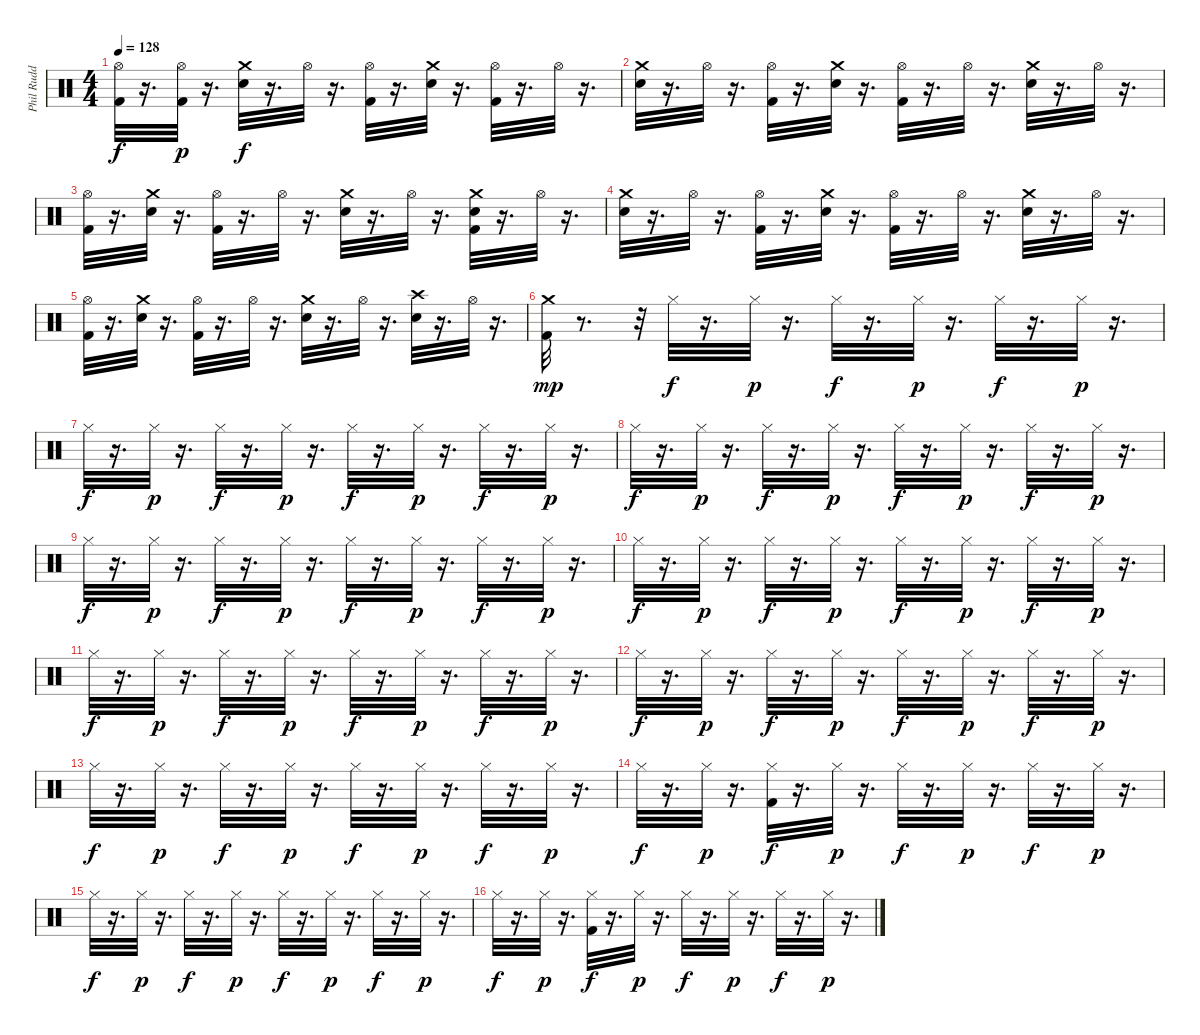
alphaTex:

\track ("Phil Rudd" "Phil Rudd") {instrument percussion}
\staff {score}
\articulation defaults
\ts (4 4)
\tempo 128
\clef neutral
\ks c
("Hi-Hat (open)" "Kick (hit) 2").32{dy f} r.16{d} ("Kick (hit) 2" "Hi-Hat (open)").32{dy p} r.16{d} ("Crash medium (hit)" "Electric Snare (hit)").32{dy f} r.16{d} "Hi-Hat (open)".32 r.16{d} ("Hi-Hat (open)" "Kick (hit) 2").32 r.16{d} ("Crash medium (hit)" "Electric Snare (hit)").32 r.16{d} ("Hi-Hat (open)" "Kick (hit) 2").32 r.16{d} "Hi-Hat (open)".32 r.16{d} |
("Crash medium (hit)" "Electric Snare (hit)").32 r.16{d} "Hi-Hat (open)".32 r.16{d} ("Hi-Hat (open)" "Kick (hit) 2").32 r.16{d} ("Crash medium (hit)" "Electric Snare (hit)").32 r.16{d} ("Hi-Hat (open)" "Kick (hit) 2").32 r.16{d} "Hi-Hat (open)".32 r.16{d} ("Crash medium (hit)" "Electric Snare (hit)").32 r.16{d} "Hi-Hat (open)".32 r.16{d} |
("Hi-Hat (open)" "Kick (hit) 2").32 r.16{d} ("Crash medium (hit)" "Electric Snare (hit)").32 r.16{d} ("Hi-Hat (open)" "Kick (hit) 2").32 r.16{d} "Hi-Hat (open)".32 r.16{d} ("Crash medium (hit)" "Electric Snare (hit)").32 r.16{d} "Hi-Hat (open)".32 r.16{d} ("Crash medium (hit)" "Kick (hit) 2" "Electric Snare (hit)").32 r.16{d} "Hi-Hat (open)".32 r.16{d} |
("Crash medium (hit)" "Electric Snare (hit)").32 r.16{d} "Hi-Hat (open)".32 r.16{d} ("Hi-Hat (open)" "Kick (hit) 2").32 r.16{d} ("Crash medium (hit)" "Electric Snare (hit)").32 r.16{d} ("Hi-Hat (open)" "Kick (hit) 2").32 r.16{d} "Hi-Hat (open)".32 r.16{d} ("Crash medium (hit)" "Electric Snare (hit)").32 r.16{d} "Hi-Hat (open)".32 r.16{d} |
("Hi-Hat (open)" "Kick (hit) 2").32 r.16{d} ("Crash medium (hit)" "Electric Snare (hit)").32 r.16{d} ("Hi-Hat (open)" "Kick (hit) 2").32 r.16{d} "Hi-Hat (open)".32 r.16{d} ("Crash medium (hit)" "Electric Snare (hit)").32 r.16{d} "Hi-Hat (open)".32 r.16{d} ("Crash high (hit)" "Electric Snare (hit)").32 r.16{d} "Hi-Hat (open)".32 r.16{d} |
("Crash medium (hit)" "Kick (hit) 2").32{dy mp} r.8{d} r.32 "Hi-Hat (closed)".32{dy f} r.16{d} "Hi-Hat (closed)".32{dy p} r.16{d} "Hi-Hat (closed)".32{dy f} r.16{d} "Hi-Hat (closed)".32{dy p} r.16{d} "Hi-Hat (closed)".32{dy f} r.16{d} "Hi-Hat (closed)".32{dy p} r.16{d} |
"Hi-Hat (closed)".32{dy f} r.16{d} "Hi-Hat (closed)".32{dy p} r.16{d} "Hi-Hat (closed)".32{dy f} r.16{d} "Hi-Hat (closed)".32{dy p} r.16{d} "Hi-Hat (closed)".32{dy f} r.16{d} "Hi-Hat (closed)".32{dy p} r.16{d} "Hi-Hat (closed)".32{dy f} r.16{d} "Hi-Hat (closed)".32{dy p} r.16{d} |
"Hi-Hat (closed)".32{dy f} r.16{d} "Hi-Hat (closed)".32{dy p} r.16{d} "Hi-Hat (closed)".32{dy f} r.16{d} "Hi-Hat (closed)".32{dy p} r.16{d} "Hi-Hat (closed)".32{dy f} r.16{d} "Hi-Hat (closed)".32{dy p} r.16{d} "Hi-Hat (closed)".32{dy f} r.16{d} "Hi-Hat (closed)".32{dy p} r.16{d} |
"Hi-Hat (closed)".32{dy f} r.16{d} "Hi-Hat (closed)".32{dy p} r.16{d} "Hi-Hat (closed)".32{dy f} r.16{d} "Hi-Hat (closed)".32{dy p} r.16{d} "Hi-Hat (closed)".32{dy f} r.16{d} "Hi-Hat (closed)".32{dy p} r.16{d} "Hi-Hat (closed)".32{dy f} r.16{d} "Hi-Hat (closed)".32{dy p} r.16{d} |
"Hi-Hat (closed)".32{dy f} r.16{d} "Hi-Hat (closed)".32{dy p} r.16{d} "Hi-Hat (closed)".32{dy f} r.16{d} "Hi-Hat (closed)".32{dy p} r.16{d} "Hi-Hat (closed)".32{dy f} r.16{d} "Hi-Hat (closed)".32{dy p} r.16{d} "Hi-Hat (closed)".32{dy f} r.16{d} "Hi-Hat (closed)".32{dy p} r.16{d} |
"Hi-Hat (closed)".32{dy f} r.16{d} "Hi-Hat (closed)".32{dy p} r.16{d} "Hi-Hat (closed)".32{dy f} r.16{d} "Hi-Hat (closed)".32{dy p} r.16{d} "Hi-Hat (closed)".32{dy f} r.16{d} "Hi-Hat (closed)".32{dy p} r.16{d} "Hi-Hat (closed)".32{dy f} r.16{d} "Hi-Hat (closed)".32{dy p} r.16{d} |
"Hi-Hat (closed)".32{dy f} r.16{d} "Hi-Hat (closed)".32{dy p} r.16{d} "Hi-Hat (closed)".32{dy f} r.16{d} "Hi-Hat (closed)".32{dy p} r.16{d} "Hi-Hat (closed)".32{dy f} r.16{d} "Hi-Hat (closed)".32{dy p} r.16{d} "Hi-Hat (closed)".32{dy f} r.16{d} "Hi-Hat (closed)".32{dy p} r.16{d} |
"Hi-Hat (closed)".32{dy f} r.16{d} "Hi-Hat (closed)".32{dy p} r.16{d} "Hi-Hat (closed)".32{dy f} r.16{d} "Hi-Hat (closed)".32{dy p} r.16{d} "Hi-Hat (closed)".32{dy f} r.16{d} "Hi-Hat (closed)".32{dy p} r.16{d} "Hi-Hat (closed)".32{dy f} r.16{d} "Hi-Hat (closed)".32{dy p} r.16{d} |
"Hi-Hat (closed)".32{dy f} r.16{d} "Hi-Hat (closed)".32{dy p} r.16{d} ("Kick (hit) 2" "Hi-Hat (closed)").32{dy f} r.16{d} "Hi-Hat (closed)".32{dy p} r.16{d} "Hi-Hat (closed)".32{dy f} r.16{d} "Hi-Hat (closed)".32{dy p} r.16{d} "Hi-Hat (closed)".32{dy f} r.16{d} "Hi-Hat (closed)".32{dy p} r.16{d} |
"Hi-Hat (closed)".32{dy f} r.16{d} "Hi-Hat (closed)".32{dy p} r.16{d} "Hi-Hat (closed)".32{dy f} r.16{d} "Hi-Hat (closed)".32{dy p} r.16{d} "Hi-Hat (closed)".32{dy f} r.16{d} "Hi-Hat (closed)".32{dy p} r.16{d} "Hi-Hat (closed)".32{dy f} r.16{d} "Hi-Hat (closed)".32{dy p} r.16{d} |
"Hi-Hat (closed)".32{dy f} r.16{d} "Hi-Hat (closed)".32{dy p} r.16{d} ("Kick (hit) 2" "Hi-Hat (closed)").32{dy f} r.16{d} "Hi-Hat (closed)".32{dy p} r.16{d} "Hi-Hat (closed)".32{dy f} r.16{d} "Hi-Hat (closed)".32{dy p} r.16{d} "Hi-Hat (closed)".32{dy f} r.16{d} "Hi-Hat (closed)".32{dy p} r.16{d}
